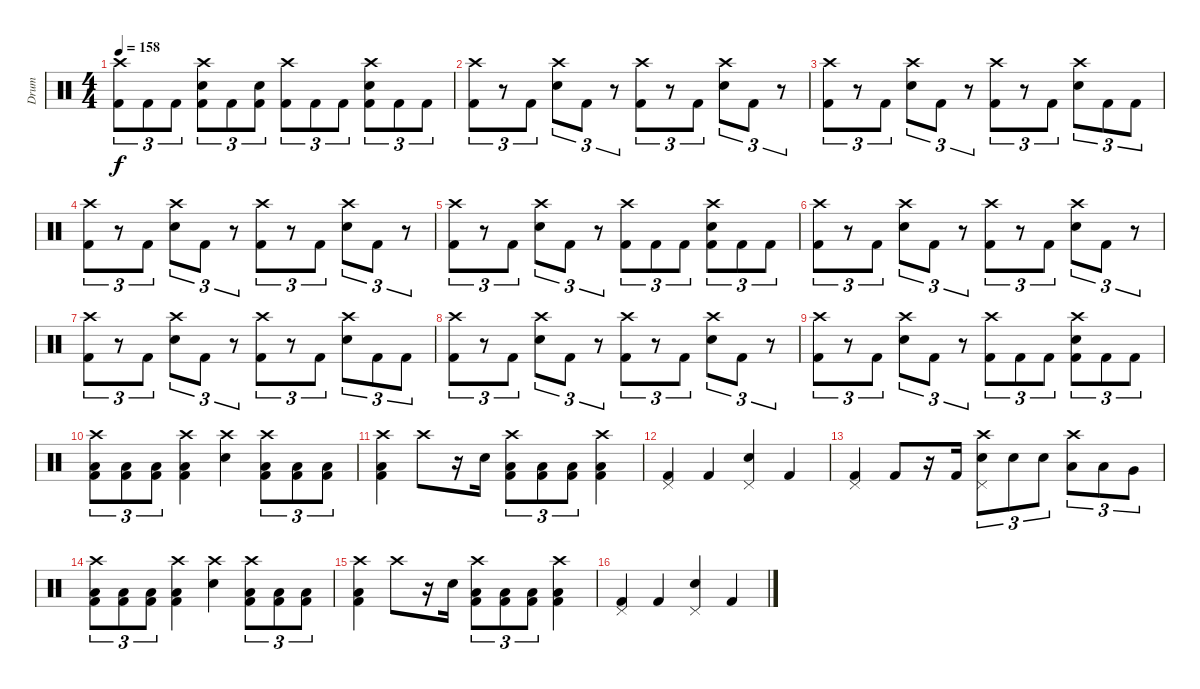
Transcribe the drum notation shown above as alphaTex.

\track ("Drum" "Drum") {instrument percussion}
\staff {score}
\articulation defaults
\ts (4 4)
\tempo 158
\clef neutral
\ks c
("Crash high (hit)" "Kick (hit) 2").8{tu (3 2) dy f} "Kick (hit) 2".8{tu (3 2)} "Kick (hit) 2".8{tu (3 2)} ("Crash high (hit)" "Electric Snare (hit)" "Kick (hit) 2").8{tu (3 2)} "Kick (hit) 2".8{tu (3 2)} ("Electric Snare (hit)" "Kick (hit) 2").8{tu (3 2)} ("Crash high (hit)" "Kick (hit) 2").8{tu (3 2)} "Kick (hit) 2".8{tu (3 2)} "Kick (hit) 2".8{tu (3 2)} ("Crash high (hit)" "Electric Snare (hit)" "Kick (hit) 2").8{tu (3 2)} "Kick (hit) 2".8{tu (3 2)} "Kick (hit) 2".8{tu (3 2)} |
("Crash high (hit)" "Kick (hit) 2").8{tu (3 2)} r.8{tu (3 2)} "Kick (hit) 2".8{tu (3 2)} ("Crash high (hit)" "Electric Snare (hit)").8{tu (3 2)} "Kick (hit) 2".8{tu (3 2)} r.8{tu (3 2)} ("Crash high (hit)" "Kick (hit) 2").8{tu (3 2)} r.8{tu (3 2)} "Kick (hit) 2".8{tu (3 2)} ("Crash high (hit)" "Electric Snare (hit)").8{tu (3 2)} "Kick (hit) 2".8{tu (3 2)} r.8{tu (3 2)} |
("Crash high (hit)" "Kick (hit) 2").8{tu (3 2)} r.8{tu (3 2)} "Kick (hit) 2".8{tu (3 2)} ("Crash high (hit)" "Electric Snare (hit)").8{tu (3 2)} "Kick (hit) 2".8{tu (3 2)} r.8{tu (3 2)} ("Crash high (hit)" "Kick (hit) 2").8{tu (3 2)} r.8{tu (3 2)} "Kick (hit) 2".8{tu (3 2)} ("Crash high (hit)" "Electric Snare (hit)").8{tu (3 2)} "Kick (hit) 2".8{tu (3 2)} "Kick (hit) 2".8{tu (3 2)} |
("Crash high (hit)" "Kick (hit) 2").8{tu (3 2)} r.8{tu (3 2)} "Kick (hit) 2".8{tu (3 2)} ("Crash high (hit)" "Electric Snare (hit)").8{tu (3 2)} "Kick (hit) 2".8{tu (3 2)} r.8{tu (3 2)} ("Crash high (hit)" "Kick (hit) 2").8{tu (3 2)} r.8{tu (3 2)} "Kick (hit) 2".8{tu (3 2)} ("Crash high (hit)" "Electric Snare (hit)").8{tu (3 2)} "Kick (hit) 2".8{tu (3 2)} r.8{tu (3 2)} |
("Crash high (hit)" "Kick (hit) 2").8{tu (3 2)} r.8{tu (3 2)} "Kick (hit) 2".8{tu (3 2)} ("Crash high (hit)" "Electric Snare (hit)").8{tu (3 2)} "Kick (hit) 2".8{tu (3 2)} r.8{tu (3 2)} ("Crash high (hit)" "Kick (hit) 2").8{tu (3 2)} "Kick (hit) 2".8{tu (3 2)} "Kick (hit) 2".8{tu (3 2)} ("Crash high (hit)" "Electric Snare (hit)" "Kick (hit) 2").8{tu (3 2)} "Kick (hit) 2".8{tu (3 2)} "Kick (hit) 2".8{tu (3 2)} |
("Crash high (hit)" "Kick (hit) 2").8{tu (3 2)} r.8{tu (3 2)} "Kick (hit) 2".8{tu (3 2)} ("Crash high (hit)" "Electric Snare (hit)").8{tu (3 2)} "Kick (hit) 2".8{tu (3 2)} r.8{tu (3 2)} ("Crash high (hit)" "Kick (hit) 2").8{tu (3 2)} r.8{tu (3 2)} "Kick (hit) 2".8{tu (3 2)} ("Crash high (hit)" "Electric Snare (hit)").8{tu (3 2)} "Kick (hit) 2".8{tu (3 2)} r.8{tu (3 2)} |
("Crash high (hit)" "Kick (hit) 2").8{tu (3 2)} r.8{tu (3 2)} "Kick (hit) 2".8{tu (3 2)} ("Crash high (hit)" "Electric Snare (hit)").8{tu (3 2)} "Kick (hit) 2".8{tu (3 2)} r.8{tu (3 2)} ("Crash high (hit)" "Kick (hit) 2").8{tu (3 2)} r.8{tu (3 2)} "Kick (hit) 2".8{tu (3 2)} ("Crash high (hit)" "Electric Snare (hit)").8{tu (3 2)} "Kick (hit) 2".8{tu (3 2)} "Kick (hit) 2".8{tu (3 2)} |
("Crash high (hit)" "Kick (hit) 2").8{tu (3 2)} r.8{tu (3 2)} "Kick (hit) 2".8{tu (3 2)} ("Crash high (hit)" "Electric Snare (hit)").8{tu (3 2)} "Kick (hit) 2".8{tu (3 2)} r.8{tu (3 2)} ("Crash high (hit)" "Kick (hit) 2").8{tu (3 2)} r.8{tu (3 2)} "Kick (hit) 2".8{tu (3 2)} ("Crash high (hit)" "Electric Snare (hit)").8{tu (3 2)} "Kick (hit) 2".8{tu (3 2)} r.8{tu (3 2)} |
("Crash high (hit)" "Kick (hit) 2").8{tu (3 2)} r.8{tu (3 2)} "Kick (hit) 2".8{tu (3 2)} ("Crash high (hit)" "Electric Snare (hit)").8{tu (3 2)} "Kick (hit) 2".8{tu (3 2)} r.8{tu (3 2)} ("Crash high (hit)" "Kick (hit) 2").8{tu (3 2)} "Kick (hit) 2".8{tu (3 2)} "Kick (hit) 2".8{tu (3 2)} ("Crash high (hit)" "Electric Snare (hit)" "Kick (hit) 2").8{tu (3 2)} "Kick (hit) 2".8{tu (3 2)} "Kick (hit) 2".8{tu (3 2)} |
("Crash high (hit)" "Low Floor Tom (hit)" "Kick (hit) 2").8{tu (3 2)} ("Low Floor Tom (hit)" "Kick (hit) 2").8{tu (3 2)} ("Low Floor Tom (hit)" "Kick (hit) 2").8{tu (3 2)} ("Crash high (hit)" "Low Floor Tom (hit)" "Kick (hit) 2").4 ("Crash high (hit)" "Electric Snare (hit)").4 ("Crash high (hit)" "Low Floor Tom (hit)" "Kick (hit) 2").8{tu (3 2)} ("Low Floor Tom (hit)" "Kick (hit) 2").8{tu (3 2)} ("Low Floor Tom (hit)" "Kick (hit) 2").8{tu (3 2)} |
("Crash high (hit)" "Low Floor Tom (hit)" "Kick (hit) 2").4 "Crash high (hit)".8 r.16 "Electric Snare (hit)".16 ("Crash high (hit)" "Low Floor Tom (hit)" "Kick (hit) 2").8{tu (3 2)} ("Low Floor Tom (hit)" "Kick (hit) 2").8{tu (3 2)} ("Low Floor Tom (hit)" "Kick (hit) 2").8{tu (3 2)} ("Crash high (hit)" "Low Floor Tom (hit)" "Kick (hit) 2").4 |
("Pedal Hi-Hat (hit)" "Kick (hit) 2").4 "Kick (hit) 2".4 ("Electric Snare (hit)" "Pedal Hi-Hat (hit)").4 "Kick (hit) 2".4 |
("Pedal Hi-Hat (hit)" "Kick (hit) 2").4 "Kick (hit) 2".8 r.16 "Kick (hit) 2".16 ("Crash high (hit)" "Electric Snare (hit)" "Pedal Hi-Hat (hit)").8{tu (3 2)} "Electric Snare (hit)".8{tu (3 2)} "Electric Snare (hit)".8{tu (3 2)} ("Crash high (hit)" "Low Tom (hit)").8{tu (3 2)} "Low Tom (hit)".8{tu (3 2)} "Very Low Tom (hit)".8{tu (3 2)} |
("Crash high (hit)" "Low Floor Tom (hit)" "Kick (hit) 2").8{tu (3 2)} ("Low Floor Tom (hit)" "Kick (hit) 2").8{tu (3 2)} ("Low Floor Tom (hit)" "Kick (hit) 2").8{tu (3 2)} ("Crash high (hit)" "Low Floor Tom (hit)" "Kick (hit) 2").4 ("Crash high (hit)" "Electric Snare (hit)").4 ("Crash high (hit)" "Low Floor Tom (hit)" "Kick (hit) 2").8{tu (3 2)} ("Low Floor Tom (hit)" "Kick (hit) 2").8{tu (3 2)} ("Low Floor Tom (hit)" "Kick (hit) 2").8{tu (3 2)} |
("Crash high (hit)" "Low Floor Tom (hit)" "Kick (hit) 2").4 "Crash high (hit)".8 r.16 "Electric Snare (hit)".16 ("Crash high (hit)" "Low Floor Tom (hit)" "Kick (hit) 2").8{tu (3 2)} ("Low Floor Tom (hit)" "Kick (hit) 2").8{tu (3 2)} ("Low Floor Tom (hit)" "Kick (hit) 2").8{tu (3 2)} ("Crash high (hit)" "Low Floor Tom (hit)" "Kick (hit) 2").4 |
("Pedal Hi-Hat (hit)" "Kick (hit) 2").4 "Kick (hit) 2".4 ("Electric Snare (hit)" "Pedal Hi-Hat (hit)").4 "Kick (hit) 2".4
